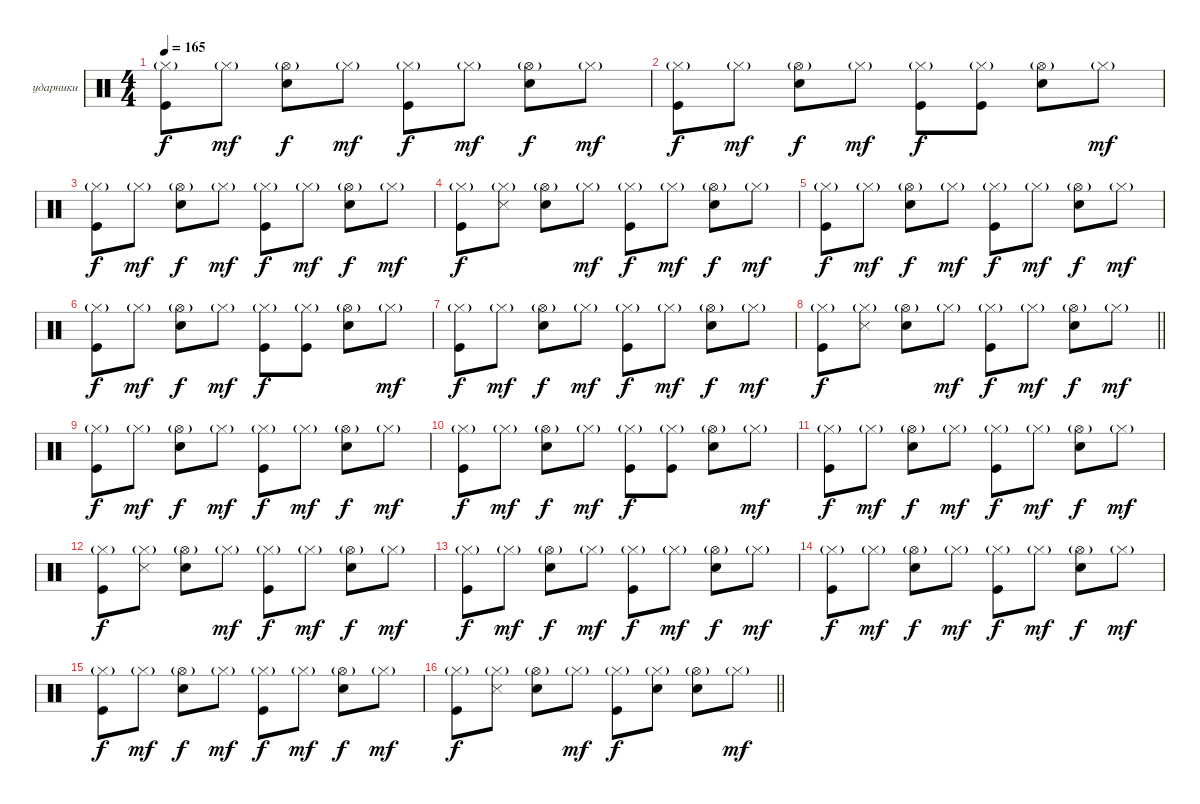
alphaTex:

\bracketExtendMode groupsimilarinstruments
\firstSystemTrackNameOrientation horizontal
\otherSystemsTrackNameOrientation horizontal
\track ("Георгий Гурьянов" "ударники") {instrument percussion}
\staff {score}
\articulation defaults
\ts (4 4)
\tempo 165
\clef neutral
\scale
0.333333
\ks c
("Hi-Hat (closed)"{g} "Kick (hit)").8{dy f} "Hi-Hat (closed)"{g}.8{dy mf} ("Hi-Hat (open)"{g} "Snare (hit) 2").8{dy f} "Hi-Hat (closed)"{g}.8{dy mf} ("Hi-Hat (closed)"{g} "Kick (hit)").8{dy f} "Hi-Hat (closed)"{g}.8{dy mf} ("Hi-Hat (open)"{g} "Snare (hit) 2").8{dy f} "Hi-Hat (closed)"{g}.8{dy mf} |
\scale
0.333333 ("Hi-Hat (closed)"{g} "Kick (hit)").8{dy f} "Hi-Hat (closed)"{g}.8{dy mf} ("Hi-Hat (open)"{g} "Snare (hit) 2").8{dy f} "Hi-Hat (closed)"{g}.8{dy mf} ("Hi-Hat (closed)"{g} "Kick (hit)").8{dy f} ("Hi-Hat (closed)"{g} "Kick (hit)").8 ("Hi-Hat (open)"{g} "Snare (hit) 2").8 "Hi-Hat (closed)"{g}.8{dy mf} |
\scale
0.333333 ("Hi-Hat (closed)"{g} "Kick (hit)").8{dy f} "Hi-Hat (closed)"{g}.8{dy mf} ("Hi-Hat (open)"{g} "Snare (hit) 2").8{dy f} "Hi-Hat (closed)"{g}.8{dy mf} ("Hi-Hat (closed)"{g} "Kick (hit)").8{dy f} "Hi-Hat (closed)"{g}.8{dy mf} ("Hi-Hat (open)"{g} "Snare (hit) 2").8{dy f} "Hi-Hat (closed)"{g}.8{dy mf} |
\scale
0.333333 ("Hi-Hat (closed)"{g} "Kick (hit)").8{dy f} ("Hi-Hat (closed)"{g} "Snare (side stick) 3").8 ("Hi-Hat (open)"{g} "Snare (hit) 2").8 "Hi-Hat (closed)"{g}.8{dy mf} ("Hi-Hat (closed)"{g} "Kick (hit)").8{dy f} "Hi-Hat (closed)"{g}.8{dy mf} ("Hi-Hat (open)"{g} "Snare (hit) 2").8{dy f} "Hi-Hat (closed)"{g}.8{dy mf} |
\scale
0.333333 ("Hi-Hat (closed)"{g} "Kick (hit)").8{dy f} "Hi-Hat (closed)"{g}.8{dy mf} ("Hi-Hat (open)"{g} "Snare (hit) 2").8{dy f} "Hi-Hat (closed)"{g}.8{dy mf} ("Hi-Hat (closed)"{g} "Kick (hit)").8{dy f} "Hi-Hat (closed)"{g}.8{dy mf} ("Hi-Hat (open)"{g} "Snare (hit) 2").8{dy f} "Hi-Hat (closed)"{g}.8{dy mf} |
\scale
0.333333 ("Hi-Hat (closed)"{g} "Kick (hit)").8{dy f} "Hi-Hat (closed)"{g}.8{dy mf} ("Hi-Hat (open)"{g} "Snare (hit) 2").8{dy f} "Hi-Hat (closed)"{g}.8{dy mf} ("Hi-Hat (closed)"{g} "Kick (hit)").8{dy f} ("Hi-Hat (closed)"{g} "Kick (hit)").8 ("Hi-Hat (open)"{g} "Snare (hit) 2").8 "Hi-Hat (closed)"{g}.8{dy mf} |
\scale
0.333333 ("Hi-Hat (closed)"{g} "Kick (hit)").8{dy f} "Hi-Hat (closed)"{g}.8{dy mf} ("Hi-Hat (open)"{g} "Snare (hit) 2").8{dy f} "Hi-Hat (closed)"{g}.8{dy mf} ("Hi-Hat (closed)"{g} "Kick (hit)").8{dy f} "Hi-Hat (closed)"{g}.8{dy mf} ("Hi-Hat (open)"{g} "Snare (hit) 2").8{dy f} "Hi-Hat (closed)"{g}.8{dy mf} |
\scale
0.333333
\barLineRight lightlight
("Hi-Hat (closed)"{g} "Kick (hit)").8{dy f} ("Hi-Hat (closed)"{g} "Snare (side stick) 3").8 ("Hi-Hat (open)"{g} "Snare (hit) 2").8 "Hi-Hat (closed)"{g}.8{dy mf} ("Hi-Hat (closed)"{g} "Kick (hit)").8{dy f} "Hi-Hat (closed)"{g}.8{dy mf} ("Hi-Hat (open)"{g} "Snare (hit) 2").8{dy f} "Hi-Hat (closed)"{g}.8{dy mf} |
\scale
0.333333 ("Hi-Hat (closed)"{g} "Kick (hit)").8{dy f} "Hi-Hat (closed)"{g}.8{dy mf} ("Hi-Hat (open)"{g} "Snare (hit) 2").8{dy f} "Hi-Hat (closed)"{g}.8{dy mf} ("Hi-Hat (closed)"{g} "Kick (hit)").8{dy f} "Hi-Hat (closed)"{g}.8{dy mf} ("Hi-Hat (open)"{g} "Snare (hit) 2").8{dy f} "Hi-Hat (closed)"{g}.8{dy mf} |
\scale
0.333333 ("Hi-Hat (closed)"{g} "Kick (hit)").8{dy f} "Hi-Hat (closed)"{g}.8{dy mf} ("Hi-Hat (open)"{g} "Snare (hit) 2").8{dy f} "Hi-Hat (closed)"{g}.8{dy mf} ("Hi-Hat (closed)"{g} "Kick (hit)").8{dy f} ("Hi-Hat (closed)"{g} "Kick (hit)").8 ("Hi-Hat (open)"{g} "Snare (hit) 2").8 "Hi-Hat (closed)"{g}.8{dy mf} |
\scale
0.333333 ("Hi-Hat (closed)"{g} "Kick (hit)").8{dy f} "Hi-Hat (closed)"{g}.8{dy mf} ("Hi-Hat (open)"{g} "Snare (hit) 2").8{dy f} "Hi-Hat (closed)"{g}.8{dy mf} ("Hi-Hat (closed)"{g} "Kick (hit)").8{dy f} "Hi-Hat (closed)"{g}.8{dy mf} ("Hi-Hat (open)"{g} "Snare (hit) 2").8{dy f} "Hi-Hat (closed)"{g}.8{dy mf} |
\scale
0.333333 ("Hi-Hat (closed)"{g} "Kick (hit)").8{dy f} ("Hi-Hat (closed)"{g} "Snare (side stick) 3").8 ("Hi-Hat (open)"{g} "Snare (hit) 2").8 "Hi-Hat (closed)"{g}.8{dy mf} ("Hi-Hat (closed)"{g} "Kick (hit)").8{dy f} "Hi-Hat (closed)"{g}.8{dy mf} ("Hi-Hat (open)"{g} "Snare (hit) 2").8{dy f} "Hi-Hat (closed)"{g}.8{dy mf} |
\scale
0.333333 ("Hi-Hat (closed)"{g} "Kick (hit)").8{dy f} "Hi-Hat (closed)"{g}.8{dy mf} ("Hi-Hat (open)"{g} "Snare (hit) 2").8{dy f} "Hi-Hat (closed)"{g}.8{dy mf} ("Hi-Hat (closed)"{g} "Kick (hit)").8{dy f} "Hi-Hat (closed)"{g}.8{dy mf} ("Hi-Hat (open)"{g} "Snare (hit) 2").8{dy f} "Hi-Hat (closed)"{g}.8{dy mf} |
\scale
0.333333 ("Hi-Hat (closed)"{g} "Kick (hit)").8{dy f} "Hi-Hat (closed)"{g}.8{dy mf} ("Hi-Hat (open)"{g} "Snare (hit) 2").8{dy f} "Hi-Hat (closed)"{g}.8{dy mf} ("Hi-Hat (closed)"{g} "Kick (hit)").8{dy f} "Hi-Hat (closed)"{g}.8{dy mf} ("Hi-Hat (open)"{g} "Snare (hit) 2").8{dy f} "Hi-Hat (closed)"{g}.8{dy mf} |
("Hi-Hat (closed)"{g} "Kick (hit)").8{dy f} "Hi-Hat (closed)"{g}.8{dy mf} ("Hi-Hat (open)"{g} "Snare (hit) 2").8{dy f} "Hi-Hat (closed)"{g}.8{dy mf} ("Hi-Hat (closed)"{g} "Kick (hit)").8{dy f} "Hi-Hat (closed)"{g}.8{dy mf} ("Hi-Hat (open)"{g} "Snare (hit) 2").8{dy f} "Hi-Hat (closed)"{g}.8{dy mf} |
\scale
0.333333
\barLineRight lightlight
("Hi-Hat (closed)"{g} "Kick (hit)").8{dy f} ("Hi-Hat (closed)"{g} "Snare (side stick) 3").8 ("Hi-Hat (open)"{g} "Snare (hit) 2").8 "Hi-Hat (closed)"{g}.8{dy mf} ("Hi-Hat (closed)"{g} "Kick (hit)").8{dy f} ("Hi-Hat (closed)"{g} "Snare (hit) 2").8 ("Hi-Hat (open)"{g} "Snare (hit) 2").8 "Hi-Hat (closed)"{g}.8{dy mf}
